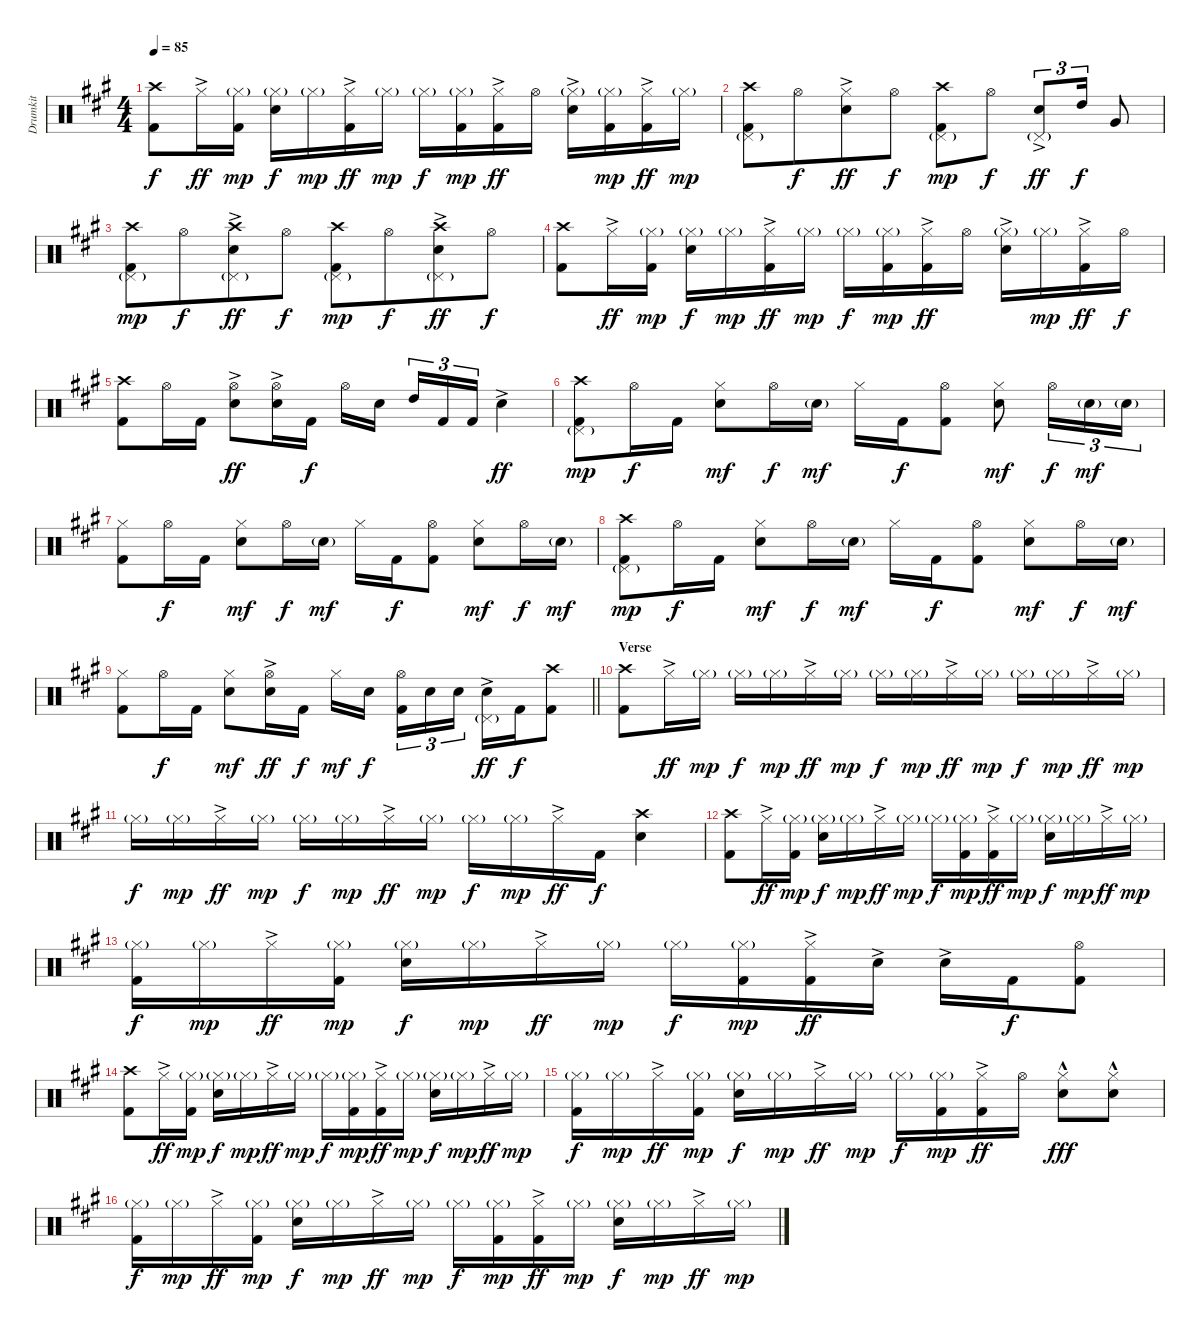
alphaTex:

\track ("Drumkit" "Drumkit") {instrument percussion}
\staff {score}
\articulation defaults
\ts (4 4)
\tempo 85
\clef neutral
\ks a
("Crash high (hit)" "Kick (hit) 2").8{dy f} "Hi-Hat (closed)"{ac}.16{dy ff} ("Hi-Hat (closed)"{g} "Kick (hit) 2").16{dy mp} ("Hi-Hat (closed)"{g} "Electric Snare (hit)").16{dy f} "Hi-Hat (closed)"{g}.16{dy mp} ("Hi-Hat (closed)"{ac} "Kick (hit) 2").16{dy ff} "Hi-Hat (closed)"{g}.16{dy mp} "Hi-Hat (closed)"{g}.16{dy f} ("Hi-Hat (closed)"{g} "Kick (hit) 2").16{dy mp} ("Hi-Hat (closed)"{ac} "Kick (hit) 2").16{dy ff} "Hi-Hat (open)".16 ("Hi-Hat (closed)"{g} "Electric Snare (hit)"{ac}).16 ("Hi-Hat (closed)"{g} "Kick (hit) 2").16{dy mp} ("Hi-Hat (closed)"{ac} "Kick (hit) 2").16{dy ff} "Hi-Hat (closed)"{g}.16{dy mp} |
("Crash high (hit)" "Pedal Hi-Hat (hit)"{g} "Kick (hit) 2").8 "Hi-Hat (open)".8{dy f beam merge} ("Hi-Hat (closed)" "Electric Snare (hit)"{ac}).8{dy ff} "Hi-Hat (open)".8{dy f} ("Crash high (hit)" "Pedal Hi-Hat (hit)"{g} "Kick (hit) 2").8{dy mp} "Hi-Hat (open)".8{dy f} ("Pedal Hi-Hat (hit)"{g} "Electric Snare (hit)"{ac}).8{tu (3 2) dy ff} "High Tom (hit)".16{tu (3 2) dy f} "Very Low Tom (hit)".8 |
("Crash high (hit)" "Pedal Hi-Hat (hit)"{g} "Kick (hit) 2").8{dy mp} "Hi-Hat (open)".8{dy f beam merge} ("Crash high (hit)" "Pedal Hi-Hat (hit)"{g} "Electric Snare (hit)"{ac}).8{dy ff} "Hi-Hat (open)".8{dy f} ("Crash high (hit)" "Pedal Hi-Hat (hit)"{g} "Kick (hit) 2").8{dy mp} "Hi-Hat (open)".8{dy f beam merge} ("Crash high (hit)" "Pedal Hi-Hat (hit)"{g} "Electric Snare (hit)"{ac}).8{dy ff} "Hi-Hat (open)".8{dy f} |
("Crash high (hit)" "Kick (hit) 2").8 "Hi-Hat (closed)"{ac}.16{dy ff} ("Hi-Hat (closed)"{g} "Kick (hit) 2").16{dy mp} ("Hi-Hat (closed)"{g} "Electric Snare (hit)").16{dy f} "Hi-Hat (closed)"{g}.16{dy mp} ("Hi-Hat (closed)"{ac} "Kick (hit) 2").16{dy ff} "Hi-Hat (closed)"{g}.16{dy mp} "Hi-Hat (closed)"{g}.16{dy f} ("Hi-Hat (closed)"{g} "Kick (hit) 2").16{dy mp} ("Hi-Hat (closed)"{ac} "Kick (hit) 2").16{dy ff} "Hi-Hat (open)".16 ("Hi-Hat (closed)"{g} "Electric Snare (hit)"{ac}).16 "Hi-Hat (closed)"{g}.16{dy mp} ("Hi-Hat (closed)"{ac} "Kick (hit) 2").16{dy ff} "Hi-Hat (open)".16{dy f} |
("Crash high (hit)" "Kick (hit) 2").8 "Hi-Hat (open)".16 "Kick (hit) 2".16 ("Hi-Hat (open)" "Electric Snare (hit)"{ac}).8{dy ff} ("Hi-Hat (open)" "Electric Snare (hit)"{ac}).16 "Kick (hit) 2".16{dy f} "Hi-Hat (open)".16 "Electric Snare (hit)".16{beam splitsecondary} "High Tom (hit)".16{tu (3 2)} "Kick (hit) 2".16{tu (3 2)} "Kick (hit) 2".16{tu (3 2)} "Electric Snare (hit)"{ac}.4{dy ff} |
("Crash high (hit)" "Pedal Hi-Hat (hit)"{g} "Kick (hit) 2").8{dy mp} "Hi-Hat (open)".16{dy f} "Kick (hit) 2".16{beam split} ("Hi-Hat (closed)" "Electric Snare (hit)").8{dy mf} "Hi-Hat (open)".16{dy f} "Electric Snare (hit)"{g}.16{dy mf} "Hi-Hat (closed)".16 "Kick (hit) 2".16{dy f} ("Hi-Hat (open)" "Kick (hit) 2").8{beam split} ("Hi-Hat (closed)" "Electric Snare (hit)").8{dy mf} "Hi-Hat (open)".16{tu (3 2) dy f} "Electric Snare (hit)"{g}.16{tu (3 2) dy mf} "Electric Snare (hit)"{g}.16{tu (3 2)} |
("Hi-Hat (closed)" "Kick (hit) 2").8 "Hi-Hat (open)".16{dy f} "Kick (hit) 2".16{beam split} ("Hi-Hat (closed)" "Electric Snare (hit)").8{dy mf} "Hi-Hat (open)".16{dy f} "Electric Snare (hit)"{g}.16{dy mf} "Hi-Hat (closed)".16 "Kick (hit) 2".16{dy f} ("Hi-Hat (open)" "Kick (hit) 2").8{beam split} ("Hi-Hat (closed)" "Electric Snare (hit)").8{dy mf} "Hi-Hat (open)".16{dy f} "Electric Snare (hit)"{g}.16{dy mf} |
("Crash high (hit)" "Pedal Hi-Hat (hit)"{g} "Kick (hit) 2").8{dy mp} "Hi-Hat (open)".16{dy f} "Kick (hit) 2".16{beam split} ("Hi-Hat (closed)" "Electric Snare (hit)").8{dy mf} "Hi-Hat (open)".16{dy f} "Electric Snare (hit)"{g}.16{dy mf} "Hi-Hat (closed)".16 "Kick (hit) 2".16{dy f} ("Hi-Hat (open)" "Kick (hit) 2").8{beam split} ("Hi-Hat (closed)" "Electric Snare (hit)").8{dy mf} "Hi-Hat (open)".16{dy f} "Electric Snare (hit)"{g}.16{dy mf} |
\barLineRight lightlight
("Hi-Hat (closed)" "Kick (hit) 2").8 "Hi-Hat (open)".16{dy f} "Kick (hit) 2".16{beam split} ("Hi-Hat (closed)" "Electric Snare (hit)").8{dy mf} ("Hi-Hat (open)" "Electric Snare (hit)"{ac}).16{dy ff} "Kick (hit) 2".16{dy f} "Hi-Hat (closed)".16{dy mf} "Electric Snare (hit)".16{dy f beam splitsecondary} ("Hi-Hat (open)" "Kick (hit) 2").16{tu (3 2)} "Electric Snare (hit)".16{tu (3 2)} "Electric Snare (hit)".16{tu (3 2)} ("Pedal Hi-Hat (hit)"{g} "Electric Snare (hit)"{ac}).16{dy ff} "Kick (hit) 2".16{dy f} ("Crash high (hit)" "Kick (hit) 2").8 |
\section ("" "Verse")
("Crash high (hit)" "Kick (hit) 2").8 "Hi-Hat (closed)"{ac}.16{dy ff} "Hi-Hat (closed)"{g}.16{dy mp} "Hi-Hat (closed)"{g}.16{dy f} "Hi-Hat (closed)"{g}.16{dy mp} "Hi-Hat (closed)"{ac}.16{dy ff} "Hi-Hat (closed)"{g}.16{dy mp} "Hi-Hat (closed)"{g}.16{dy f} "Hi-Hat (closed)"{g}.16{dy mp} "Hi-Hat (closed)"{ac}.16{dy ff} "Hi-Hat (closed)"{g}.16{dy mp} "Hi-Hat (closed)"{g}.16{dy f} "Hi-Hat (closed)"{g}.16{dy mp} "Hi-Hat (closed)"{ac}.16{dy ff} "Hi-Hat (closed)"{g}.16{dy mp} |
"Hi-Hat (closed)"{g}.16{dy f} "Hi-Hat (closed)"{g}.16{dy mp} "Hi-Hat (closed)"{ac}.16{dy ff} "Hi-Hat (closed)"{g}.16{dy mp} "Hi-Hat (closed)"{g}.16{dy f} "Hi-Hat (closed)"{g}.16{dy mp} "Hi-Hat (closed)"{ac}.16{dy ff} "Hi-Hat (closed)"{g}.16{dy mp} "Hi-Hat (closed)"{g}.16{dy f} "Hi-Hat (closed)"{g}.16{dy mp} "Hi-Hat (closed)"{ac}.16{dy ff} "Kick (hit) 2".16{dy f} ("Crash high (hit)" "Electric Snare (hit)").4 |
("Crash high (hit)" "Kick (hit) 2").8 "Hi-Hat (closed)"{ac}.16{dy ff} ("Hi-Hat (closed)"{g} "Kick (hit) 2").16{dy mp} ("Hi-Hat (closed)"{g} "Electric Snare (hit)").16{dy f} "Hi-Hat (closed)"{g}.16{dy mp} "Hi-Hat (closed)"{ac}.16{dy ff} "Hi-Hat (closed)"{g}.16{dy mp} "Hi-Hat (closed)"{g}.16{dy f} ("Hi-Hat (closed)"{g} "Kick (hit) 2").16{dy mp} ("Hi-Hat (closed)"{ac} "Kick (hit) 2").16{dy ff} "Hi-Hat (closed)"{g}.16{dy mp} ("Hi-Hat (closed)"{g} "Electric Snare (hit)").16{dy f} "Hi-Hat (closed)"{g}.16{dy mp} "Hi-Hat (closed)"{ac}.16{dy ff} "Hi-Hat (closed)"{g}.16{dy mp} |
("Hi-Hat (closed)"{g} "Kick (hit) 2").16{dy f} "Hi-Hat (closed)"{g}.16{dy mp} "Hi-Hat (closed)"{ac}.16{dy ff} ("Hi-Hat (closed)"{g} "Kick (hit) 2").16{dy mp} ("Hi-Hat (closed)"{g} "Electric Snare (hit)").16{dy f} "Hi-Hat (closed)"{g}.16{dy mp} "Hi-Hat (closed)"{ac}.16{dy ff} "Hi-Hat (closed)"{g}.16{dy mp} "Hi-Hat (closed)"{g}.16{dy f} ("Hi-Hat (closed)"{g} "Kick (hit) 2").16{dy mp} ("Hi-Hat (closed)"{ac} "Kick (hit) 2").16{dy ff} "Electric Snare (hit)"{ac}.16 "Electric Snare (hit)"{ac}.16 "Kick (hit) 2".16{dy f} ("Hi-Hat (open)" "Kick (hit) 2").8 |
("Crash high (hit)" "Kick (hit) 2").8 "Hi-Hat (closed)"{ac}.16{dy ff} ("Hi-Hat (closed)"{g} "Kick (hit) 2").16{dy mp} ("Hi-Hat (closed)"{g} "Electric Snare (hit)").16{dy f} "Hi-Hat (closed)"{g}.16{dy mp} "Hi-Hat (closed)"{ac}.16{dy ff} "Hi-Hat (closed)"{g}.16{dy mp} "Hi-Hat (closed)"{g}.16{dy f} ("Hi-Hat (closed)"{g} "Kick (hit) 2").16{dy mp} ("Hi-Hat (closed)"{ac} "Kick (hit) 2").16{dy ff} "Hi-Hat (closed)"{g}.16{dy mp} ("Hi-Hat (closed)"{g} "Electric Snare (hit)").16{dy f} "Hi-Hat (closed)"{g}.16{dy mp} "Hi-Hat (closed)"{ac}.16{dy ff} "Hi-Hat (closed)"{g}.16{dy mp} |
("Hi-Hat (closed)"{g} "Kick (hit) 2").16{dy f} "Hi-Hat (closed)"{g}.16{dy mp} "Hi-Hat (closed)"{ac}.16{dy ff} ("Hi-Hat (closed)"{g} "Kick (hit) 2").16{dy mp} ("Hi-Hat (closed)"{g} "Electric Snare (hit)").16{dy f} "Hi-Hat (closed)"{g}.16{dy mp} "Hi-Hat (closed)"{ac}.16{dy ff} "Hi-Hat (closed)"{g}.16{dy mp} "Hi-Hat (closed)"{g}.16{dy f} ("Hi-Hat (closed)"{g} "Kick (hit) 2").16{dy mp} ("Hi-Hat (closed)"{ac} "Kick (hit) 2").16{dy ff} "Hi-Hat (open)".16 ("Hi-Hat (closed)" "Electric Snare (hit)"{hac}).8{dy fff} ("Hi-Hat (closed)" "Electric Snare (hit)"{hac}).8 |
("Hi-Hat (closed)"{g} "Kick (hit) 2").16{dy f} "Hi-Hat (closed)"{g}.16{dy mp} "Hi-Hat (closed)"{ac}.16{dy ff} ("Hi-Hat (closed)"{g} "Kick (hit) 2").16{dy mp} ("Hi-Hat (closed)"{g} "Electric Snare (hit)").16{dy f} "Hi-Hat (closed)"{g}.16{dy mp} "Hi-Hat (closed)"{ac}.16{dy ff} "Hi-Hat (closed)"{g}.16{dy mp} "Hi-Hat (closed)"{g}.16{dy f} ("Hi-Hat (closed)"{g} "Kick (hit) 2").16{dy mp} ("Hi-Hat (closed)"{ac} "Kick (hit) 2").16{dy ff} "Hi-Hat (closed)"{g}.16{dy mp} ("Hi-Hat (closed)"{g} "Electric Snare (hit)").16{dy f} "Hi-Hat (closed)"{g}.16{dy mp} "Hi-Hat (closed)"{ac}.16{dy ff} "Hi-Hat (closed)"{g}.16{dy mp}
